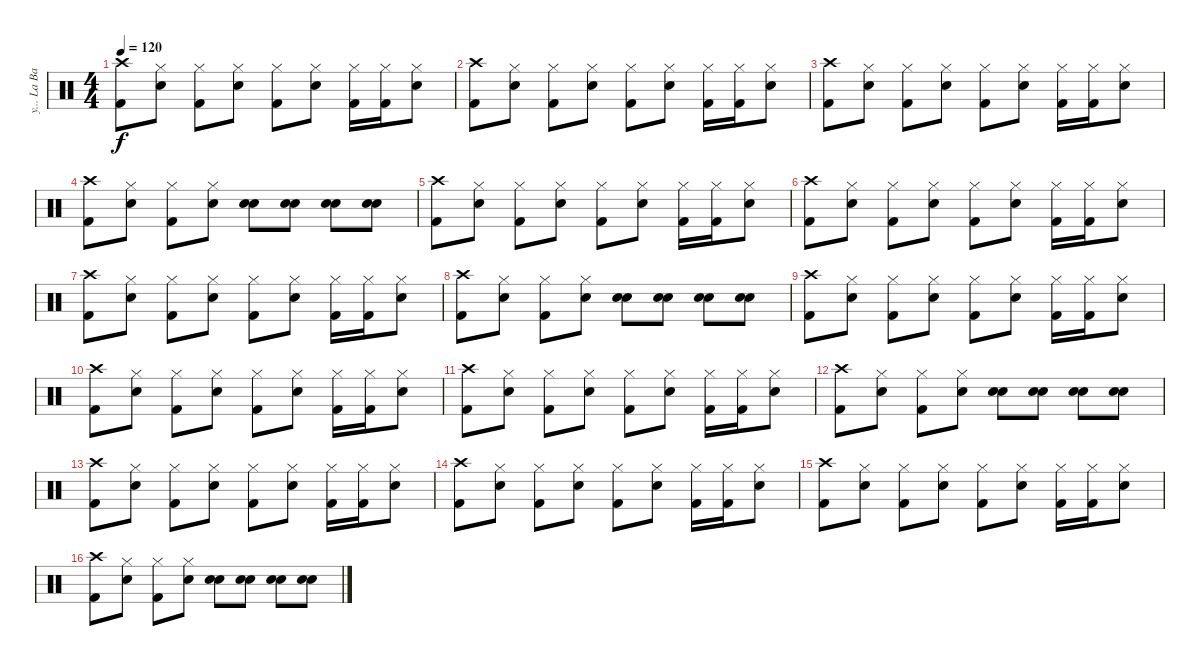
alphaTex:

\track ("y... La Bataka" "y... La Ba") {instrument percussion}
\staff {score}
\articulation defaults
\ts (4 4)
\tempo 120
\clef neutral
\ks c
("Crash high (hit)" "Kick (hit) 2").8{dy f} ("Hi-Hat (closed)" "Snare (hit) 2").8 ("Hi-Hat (closed)" "Kick (hit) 2").8 ("Hi-Hat (closed)" "Snare (hit) 2").8 ("Hi-Hat (closed)" "Kick (hit) 2").8 ("Hi-Hat (closed)" "Snare (hit) 2").8 ("Hi-Hat (closed)" "Kick (hit) 2").16 ("Hi-Hat (closed)" "Kick (hit) 2").16 ("Hi-Hat (closed)" "Snare (hit) 2").8 |
("Crash high (hit)" "Kick (hit) 2").8 ("Hi-Hat (closed)" "Snare (hit) 2").8 ("Hi-Hat (closed)" "Kick (hit) 2").8 ("Hi-Hat (closed)" "Snare (hit) 2").8 ("Hi-Hat (closed)" "Kick (hit) 2").8 ("Hi-Hat (closed)" "Snare (hit) 2").8 ("Hi-Hat (closed)" "Kick (hit) 2").16 ("Hi-Hat (closed)" "Kick (hit) 2").16 ("Hi-Hat (closed)" "Snare (hit) 2").8 |
("Crash high (hit)" "Kick (hit) 2").8 ("Hi-Hat (closed)" "Snare (hit) 2").8 ("Hi-Hat (closed)" "Kick (hit) 2").8 ("Hi-Hat (closed)" "Snare (hit) 2").8 ("Hi-Hat (closed)" "Kick (hit) 2").8 ("Hi-Hat (closed)" "Snare (hit) 2").8 ("Hi-Hat (closed)" "Kick (hit) 2").16 ("Hi-Hat (closed)" "Kick (hit) 2").16 ("Hi-Hat (closed)" "Snare (hit) 2").8 |
("Crash high (hit)" "Kick (hit) 2").8 ("Hi-Hat (closed)" "Snare (hit) 2").8 ("Hi-Hat (closed)" "Kick (hit) 2").8 ("Hi-Hat (closed)" "Snare (hit) 2").8 ("Snare (hit) 2" "Snare (hit) 2").8 ("Snare (hit) 2" "Snare (hit) 2").8 ("Snare (hit) 2" "Snare (hit) 2").8 ("Snare (hit) 2" "Snare (hit) 2").8 |
("Crash high (hit)" "Kick (hit) 2").8 ("Hi-Hat (closed)" "Snare (hit) 2").8 ("Hi-Hat (closed)" "Kick (hit) 2").8 ("Hi-Hat (closed)" "Snare (hit) 2").8 ("Hi-Hat (closed)" "Kick (hit) 2").8 ("Hi-Hat (closed)" "Snare (hit) 2").8 ("Hi-Hat (closed)" "Kick (hit) 2").16 ("Hi-Hat (closed)" "Kick (hit) 2").16 ("Hi-Hat (closed)" "Snare (hit) 2").8 |
("Crash high (hit)" "Kick (hit) 2").8 ("Hi-Hat (closed)" "Snare (hit) 2").8 ("Hi-Hat (closed)" "Kick (hit) 2").8 ("Hi-Hat (closed)" "Snare (hit) 2").8 ("Hi-Hat (closed)" "Kick (hit) 2").8 ("Hi-Hat (closed)" "Snare (hit) 2").8 ("Hi-Hat (closed)" "Kick (hit) 2").16 ("Hi-Hat (closed)" "Kick (hit) 2").16 ("Hi-Hat (closed)" "Snare (hit) 2").8 |
("Crash high (hit)" "Kick (hit) 2").8 ("Hi-Hat (closed)" "Snare (hit) 2").8 ("Hi-Hat (closed)" "Kick (hit) 2").8 ("Hi-Hat (closed)" "Snare (hit) 2").8 ("Hi-Hat (closed)" "Kick (hit) 2").8 ("Hi-Hat (closed)" "Snare (hit) 2").8 ("Hi-Hat (closed)" "Kick (hit) 2").16 ("Hi-Hat (closed)" "Kick (hit) 2").16 ("Hi-Hat (closed)" "Snare (hit) 2").8 |
("Crash high (hit)" "Kick (hit) 2").8 ("Hi-Hat (closed)" "Snare (hit) 2").8 ("Hi-Hat (closed)" "Kick (hit) 2").8 ("Hi-Hat (closed)" "Snare (hit) 2").8 ("Snare (hit) 2" "Snare (hit) 2").8 ("Snare (hit) 2" "Snare (hit) 2").8 ("Snare (hit) 2" "Snare (hit) 2").8 ("Snare (hit) 2" "Snare (hit) 2").8 |
("Crash high (hit)" "Kick (hit) 2").8 ("Hi-Hat (closed)" "Snare (hit) 2").8 ("Hi-Hat (closed)" "Kick (hit) 2").8 ("Hi-Hat (closed)" "Snare (hit) 2").8 ("Hi-Hat (closed)" "Kick (hit) 2").8 ("Hi-Hat (closed)" "Snare (hit) 2").8 ("Hi-Hat (closed)" "Kick (hit) 2").16 ("Hi-Hat (closed)" "Kick (hit) 2").16 ("Hi-Hat (closed)" "Snare (hit) 2").8 |
("Crash high (hit)" "Kick (hit) 2").8 ("Hi-Hat (closed)" "Snare (hit) 2").8 ("Hi-Hat (closed)" "Kick (hit) 2").8 ("Hi-Hat (closed)" "Snare (hit) 2").8 ("Hi-Hat (closed)" "Kick (hit) 2").8 ("Hi-Hat (closed)" "Snare (hit) 2").8 ("Hi-Hat (closed)" "Kick (hit) 2").16 ("Hi-Hat (closed)" "Kick (hit) 2").16 ("Hi-Hat (closed)" "Snare (hit) 2").8 |
("Crash high (hit)" "Kick (hit) 2").8 ("Hi-Hat (closed)" "Snare (hit) 2").8 ("Hi-Hat (closed)" "Kick (hit) 2").8 ("Hi-Hat (closed)" "Snare (hit) 2").8 ("Hi-Hat (closed)" "Kick (hit) 2").8 ("Hi-Hat (closed)" "Snare (hit) 2").8 ("Hi-Hat (closed)" "Kick (hit) 2").16 ("Hi-Hat (closed)" "Kick (hit) 2").16 ("Hi-Hat (closed)" "Snare (hit) 2").8 |
("Crash high (hit)" "Kick (hit) 2").8 ("Hi-Hat (closed)" "Snare (hit) 2").8 ("Hi-Hat (closed)" "Kick (hit) 2").8 ("Hi-Hat (closed)" "Snare (hit) 2").8 ("Snare (hit) 2" "Snare (hit) 2").8 ("Snare (hit) 2" "Snare (hit) 2").8 ("Snare (hit) 2" "Snare (hit) 2").8 ("Snare (hit) 2" "Snare (hit) 2").8 |
("Crash high (hit)" "Kick (hit) 2").8 ("Hi-Hat (closed)" "Snare (hit) 2").8 ("Hi-Hat (closed)" "Kick (hit) 2").8 ("Hi-Hat (closed)" "Snare (hit) 2").8 ("Hi-Hat (closed)" "Kick (hit) 2").8 ("Hi-Hat (closed)" "Snare (hit) 2").8 ("Hi-Hat (closed)" "Kick (hit) 2").16 ("Hi-Hat (closed)" "Kick (hit) 2").16 ("Hi-Hat (closed)" "Snare (hit) 2").8 |
("Crash high (hit)" "Kick (hit) 2").8 ("Hi-Hat (closed)" "Snare (hit) 2").8 ("Hi-Hat (closed)" "Kick (hit) 2").8 ("Hi-Hat (closed)" "Snare (hit) 2").8 ("Hi-Hat (closed)" "Kick (hit) 2").8 ("Hi-Hat (closed)" "Snare (hit) 2").8 ("Hi-Hat (closed)" "Kick (hit) 2").16 ("Hi-Hat (closed)" "Kick (hit) 2").16 ("Hi-Hat (closed)" "Snare (hit) 2").8 |
("Crash high (hit)" "Kick (hit) 2").8 ("Hi-Hat (closed)" "Snare (hit) 2").8 ("Hi-Hat (closed)" "Kick (hit) 2").8 ("Hi-Hat (closed)" "Snare (hit) 2").8 ("Hi-Hat (closed)" "Kick (hit) 2").8 ("Hi-Hat (closed)" "Snare (hit) 2").8 ("Hi-Hat (closed)" "Kick (hit) 2").16 ("Hi-Hat (closed)" "Kick (hit) 2").16 ("Hi-Hat (closed)" "Snare (hit) 2").8 |
("Crash high (hit)" "Kick (hit) 2").8 ("Hi-Hat (closed)" "Snare (hit) 2").8 ("Hi-Hat (closed)" "Kick (hit) 2").8 ("Hi-Hat (closed)" "Snare (hit) 2").8 ("Snare (hit) 2" "Snare (hit) 2").8 ("Snare (hit) 2" "Snare (hit) 2").8 ("Snare (hit) 2" "Snare (hit) 2").8 ("Snare (hit) 2" "Snare (hit) 2").8
